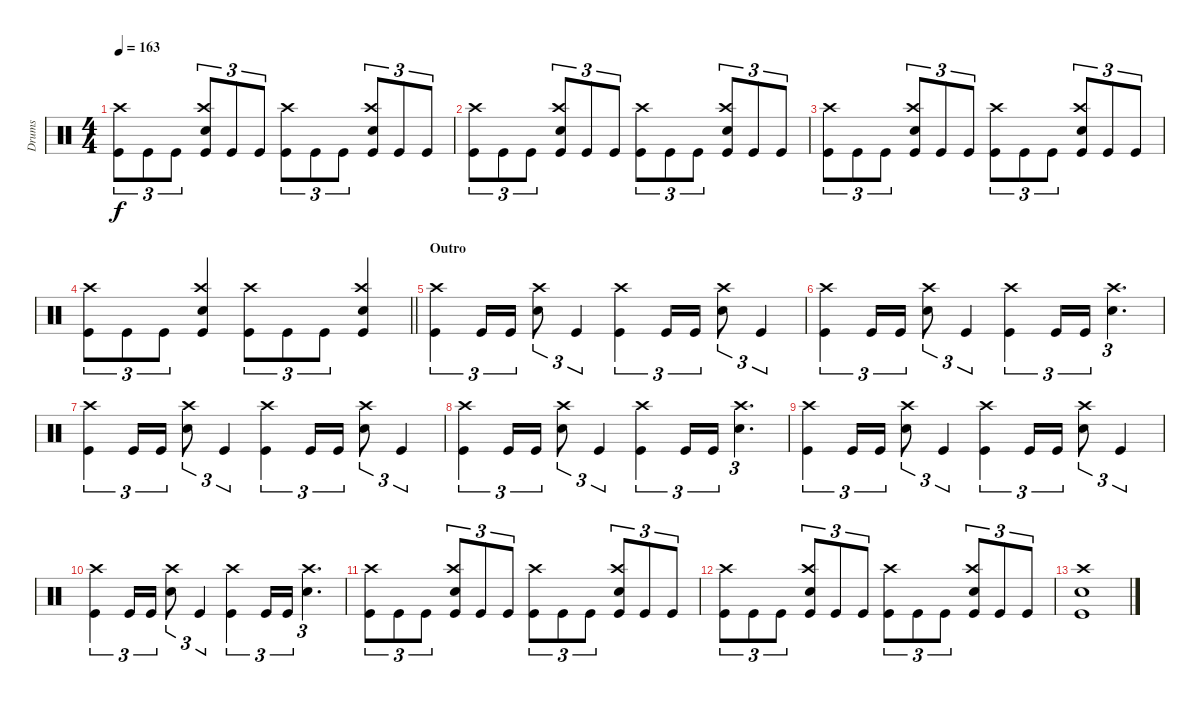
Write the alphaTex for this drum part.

\track ("Drums" "Drums") {instrument percussion}
\staff {score}
\articulation defaults
\ts (4 4)
\tempo 163
\clef neutral
\ks c
("Kick (hit)" "Crash high (hit)").8{tu (3 2) dy f} "Kick (hit)".8{tu (3 2)} "Kick (hit)".8{tu (3 2)} ("Kick (hit)" "Snare (hit) 2" "Crash high (hit)").8{tu (3 2)} "Kick (hit)".8{tu (3 2)} "Kick (hit)".8{tu (3 2)} ("Kick (hit)" "Crash high (hit)").8{tu (3 2)} "Kick (hit)".8{tu (3 2)} "Kick (hit)".8{tu (3 2)} ("Kick (hit)" "Snare (hit) 2" "Crash high (hit)").8{tu (3 2)} "Kick (hit)".8{tu (3 2)} "Kick (hit)".8{tu (3 2)} |
("Kick (hit)" "Crash high (hit)").8{tu (3 2)} "Kick (hit)".8{tu (3 2)} "Kick (hit)".8{tu (3 2)} ("Kick (hit)" "Snare (hit) 2" "Crash high (hit)").8{tu (3 2)} "Kick (hit)".8{tu (3 2)} "Kick (hit)".8{tu (3 2)} ("Kick (hit)" "Crash high (hit)").8{tu (3 2)} "Kick (hit)".8{tu (3 2)} "Kick (hit)".8{tu (3 2)} ("Kick (hit)" "Snare (hit) 2" "Crash high (hit)").8{tu (3 2)} "Kick (hit)".8{tu (3 2)} "Kick (hit)".8{tu (3 2)} |
("Kick (hit)" "Crash high (hit)").8{tu (3 2)} "Kick (hit)".8{tu (3 2)} "Kick (hit)".8{tu (3 2)} ("Kick (hit)" "Snare (hit) 2" "Crash high (hit)").8{tu (3 2)} "Kick (hit)".8{tu (3 2)} "Kick (hit)".8{tu (3 2)} ("Kick (hit)" "Crash high (hit)").8{tu (3 2)} "Kick (hit)".8{tu (3 2)} "Kick (hit)".8{tu (3 2)} ("Kick (hit)" "Snare (hit) 2" "Crash high (hit)").8{tu (3 2)} "Kick (hit)".8{tu (3 2)} "Kick (hit)".8{tu (3 2)} |
\barLineRight lightlight
("Kick (hit)" "Crash high (hit)").8{tu (3 2)} "Kick (hit)".8{tu (3 2)} "Kick (hit)".8{tu (3 2)} ("Kick (hit)" "Snare (hit) 2" "Crash high (hit)").4 ("Kick (hit)" "Crash high (hit)").8{tu (3 2)} "Kick (hit)".8{tu (3 2)} "Kick (hit)".8{tu (3 2)} ("Kick (hit)" "Snare (hit) 2" "Crash high (hit)").4 |
\section ("" "Outro")
("Kick (hit)" "Crash high (hit)").4{tu (3 2)} "Kick (hit)".16{tu (3 2)} "Kick (hit)".16{tu (3 2)} ("Snare (hit) 2" "Crash high (hit)").8{tu (3 2)} "Kick (hit)".4{tu (3 2)} ("Kick (hit)" "Crash high (hit)").4{tu (3 2)} "Kick (hit)".16{tu (3 2)} "Kick (hit)".16{tu (3 2)} ("Snare (hit) 2" "Crash high (hit)").8{tu (3 2)} "Kick (hit)".4{tu (3 2)} |
("Kick (hit)" "Crash high (hit)").4{tu (3 2)} "Kick (hit)".16{tu (3 2)} "Kick (hit)".16{tu (3 2)} ("Snare (hit) 2" "Crash high (hit)").8{tu (3 2)} "Kick (hit)".4{tu (3 2)} ("Kick (hit)" "Crash high (hit)").4{tu (3 2)} "Kick (hit)".16{tu (3 2)} "Kick (hit)".16{tu (3 2)} ("Snare (hit) 2" "Crash high (hit)").4{d tu (3 2)} |
("Kick (hit)" "Crash high (hit)").4{tu (3 2)} "Kick (hit)".16{tu (3 2)} "Kick (hit)".16{tu (3 2)} ("Snare (hit) 2" "Crash high (hit)").8{tu (3 2)} "Kick (hit)".4{tu (3 2)} ("Kick (hit)" "Crash high (hit)").4{tu (3 2)} "Kick (hit)".16{tu (3 2)} "Kick (hit)".16{tu (3 2)} ("Snare (hit) 2" "Crash high (hit)").8{tu (3 2)} "Kick (hit)".4{tu (3 2)} |
("Kick (hit)" "Crash high (hit)").4{tu (3 2)} "Kick (hit)".16{tu (3 2)} "Kick (hit)".16{tu (3 2)} ("Snare (hit) 2" "Crash high (hit)").8{tu (3 2)} "Kick (hit)".4{tu (3 2)} ("Kick (hit)" "Crash high (hit)").4{tu (3 2)} "Kick (hit)".16{tu (3 2)} "Kick (hit)".16{tu (3 2)} ("Snare (hit) 2" "Crash high (hit)").4{d tu (3 2)} |
("Kick (hit)" "Crash high (hit)").4{tu (3 2)} "Kick (hit)".16{tu (3 2)} "Kick (hit)".16{tu (3 2)} ("Snare (hit) 2" "Crash high (hit)").8{tu (3 2)} "Kick (hit)".4{tu (3 2)} ("Kick (hit)" "Crash high (hit)").4{tu (3 2)} "Kick (hit)".16{tu (3 2)} "Kick (hit)".16{tu (3 2)} ("Snare (hit) 2" "Crash high (hit)").8{tu (3 2)} "Kick (hit)".4{tu (3 2)} |
("Kick (hit)" "Crash high (hit)").4{tu (3 2)} "Kick (hit)".16{tu (3 2)} "Kick (hit)".16{tu (3 2)} ("Snare (hit) 2" "Crash high (hit)").8{tu (3 2)} "Kick (hit)".4{tu (3 2)} ("Kick (hit)" "Crash high (hit)").4{tu (3 2)} "Kick (hit)".16{tu (3 2)} "Kick (hit)".16{tu (3 2)} ("Snare (hit) 2" "Crash high (hit)").4{d tu (3 2)} |
("Kick (hit)" "Crash high (hit)").8{tu (3 2)} "Kick (hit)".8{tu (3 2)} "Kick (hit)".8{tu (3 2)} ("Kick (hit)" "Snare (hit) 2" "Crash high (hit)").8{tu (3 2)} "Kick (hit)".8{tu (3 2)} "Kick (hit)".8{tu (3 2)} ("Kick (hit)" "Crash high (hit)").8{tu (3 2)} "Kick (hit)".8{tu (3 2)} "Kick (hit)".8{tu (3 2)} ("Kick (hit)" "Snare (hit) 2" "Crash high (hit)").8{tu (3 2)} "Kick (hit)".8{tu (3 2)} "Kick (hit)".8{tu (3 2)} |
("Kick (hit)" "Crash high (hit)").8{tu (3 2)} "Kick (hit)".8{tu (3 2)} "Kick (hit)".8{tu (3 2)} ("Kick (hit)" "Snare (hit) 2" "Crash high (hit)").8{tu (3 2)} "Kick (hit)".8{tu (3 2)} "Kick (hit)".8{tu (3 2)} ("Kick (hit)" "Crash high (hit)").8{tu (3 2)} "Kick (hit)".8{tu (3 2)} "Kick (hit)".8{tu (3 2)} ("Kick (hit)" "Snare (hit) 2" "Crash high (hit)").8{tu (3 2)} "Kick (hit)".8{tu (3 2)} "Kick (hit)".8{tu (3 2)} |
("Kick (hit)" "Snare (hit) 2" "Crash high (hit)").1
